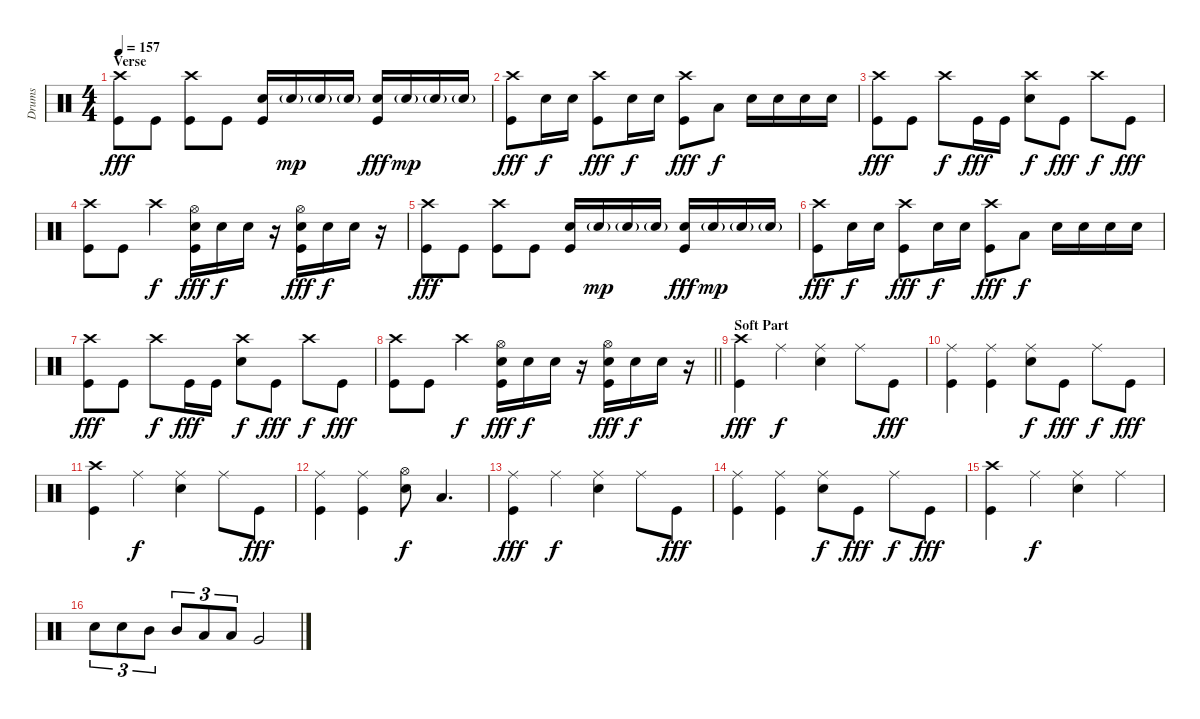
\track ("Drums" "Drums") {instrument percussion}
\staff {score}
\articulation defaults
\ts (4 4)
\section ("" "Verse")
\tempo 157
\clef neutral
\ks c
("Crash high (hit)" "Kick (hit)").8{dy fff} "Kick (hit)".8 ("Crash high (hit)" "Kick (hit)").8 "Kick (hit)".8 ("Snare (hit) 2" "Kick (hit)").16 "Snare (hit) 2"{g}.16{dy mp} "Snare (hit) 2"{g}.16 "Snare (hit) 2"{g}.16 ("Snare (hit) 2" "Kick (hit)").16{dy fff} "Snare (hit) 2"{g}.16{dy mp} "Snare (hit) 2"{g}.16 "Snare (hit) 2"{g}.16 |
("Crash high (hit)" "Kick (hit)").8{dy fff} "Snare (hit) 2".16{dy f} "Snare (hit) 2".16 ("Crash high (hit)" "Kick (hit)").8{dy fff} "Snare (hit) 2".16{dy f} "Snare (hit) 2".16 ("Crash high (hit)" "Kick (hit)").8{dy fff} "Low Tom (hit)".8{dy f} "Snare (hit) 2".16 "Snare (hit) 2".16 "Snare (hit) 2".16 "Snare (hit) 2".16 |
("Crash high (hit)" "Kick (hit)").8{dy fff} "Kick (hit)".8 "Crash high (hit)".8{dy f} "Kick (hit)".16{dy fff} "Kick (hit)".16 ("Crash high (hit)" "Snare (hit) 2").8{dy f} "Kick (hit)".8{dy fff} "Crash high (hit)".8{dy f} "Kick (hit)".8{dy fff} |
("Crash high (hit)" "Kick (hit)").8 "Kick (hit)".8 "Crash high (hit)".4{dy f} ("Hi-Hat (open)" "Snare (hit) 2" "Kick (hit)").16{dy fff} "Snare (hit) 2".16{dy f} "Snare (hit) 2".16 r.16 ("Hi-Hat (open)" "Snare (hit) 2" "Kick (hit)").16{dy fff} "Snare (hit) 2".16{dy f} "Snare (hit) 2".16 r.16 |
("Crash high (hit)" "Kick (hit)").8{dy fff} "Kick (hit)".8 ("Crash high (hit)" "Kick (hit)").8 "Kick (hit)".8 ("Snare (hit) 2" "Kick (hit)").16 "Snare (hit) 2"{g}.16{dy mp} "Snare (hit) 2"{g}.16 "Snare (hit) 2"{g}.16 ("Snare (hit) 2" "Kick (hit)").16{dy fff} "Snare (hit) 2"{g}.16{dy mp} "Snare (hit) 2"{g}.16 "Snare (hit) 2"{g}.16 |
("Crash high (hit)" "Kick (hit)").8{dy fff} "Snare (hit) 2".16{dy f} "Snare (hit) 2".16 ("Crash high (hit)" "Kick (hit)").8{dy fff} "Snare (hit) 2".16{dy f} "Snare (hit) 2".16 ("Crash high (hit)" "Kick (hit)").8{dy fff} "Low Tom (hit)".8{dy f} "Snare (hit) 2".16 "Snare (hit) 2".16 "Snare (hit) 2".16 "Snare (hit) 2".16 |
("Crash high (hit)" "Kick (hit)").8{dy fff} "Kick (hit)".8 "Crash high (hit)".8{dy f} "Kick (hit)".16{dy fff} "Kick (hit)".16 ("Crash high (hit)" "Snare (hit) 2").8{dy f} "Kick (hit)".8{dy fff} "Crash high (hit)".8{dy f} "Kick (hit)".8{dy fff} |
\barLineRight lightlight
("Crash high (hit)" "Kick (hit)").8 "Kick (hit)".8 "Crash high (hit)".4{dy f} ("Hi-Hat (open)" "Snare (hit) 2" "Kick (hit)").16{dy fff} "Snare (hit) 2".16{dy f} "Snare (hit) 2".16 r.16 ("Hi-Hat (open)" "Snare (hit) 2" "Kick (hit)").16{dy fff} "Snare (hit) 2".16{dy f} "Snare (hit) 2".16 r.16 |
\section ("" "Soft Part")
("Crash high (hit)" "Kick (hit)").4{dy fff} "Ride (middle)".4{dy f} ("Ride (middle)" "Snare (hit) 2").4 "Ride (middle)".8 "Kick (hit)".8{dy fff} |
("Ride (middle)" "Kick (hit)").4 ("Ride (middle)" "Kick (hit)").4 ("Ride (middle)" "Snare (hit) 2").8{dy f} "Kick (hit)".8{dy fff} "Ride (middle)".8{dy f} "Kick (hit)".8{dy fff} |
("Crash high (hit)" "Kick (hit)").4 "Ride (middle)".4{dy f} ("Ride (middle)" "Snare (hit) 2").4 "Ride (middle)".8 "Kick (hit)".8{dy fff} |
("Ride (middle)" "Kick (hit)").4 ("Ride (middle)" "Kick (hit)").4 ("Hi-Hat (open)" "Snare (hit) 2").8{dy f} "Low Floor Tom (hit)".4{d} |
("Ride (middle)" "Kick (hit)").4{dy fff} "Ride (middle)".4{dy f} ("Ride (middle)" "Snare (hit) 2").4 "Ride (middle)".8 "Kick (hit)".8{dy fff} |
("Ride (middle)" "Kick (hit)").4 ("Ride (middle)" "Kick (hit)").4 ("Ride (middle)" "Snare (hit) 2").8{dy f} "Kick (hit)".8{dy fff} "Ride (middle)".8{dy f} "Kick (hit)".8{dy fff} |
("Crash high (hit)" "Kick (hit)").4 "Ride (middle)".4{dy f} ("Ride (middle)" "Snare (hit) 2").4 "Ride (middle)".4 |
"Snare (hit) 2".8{tu (3 2)} "Snare (hit) 2".8{tu (3 2)} "Mid Tom (hit)".8{tu (3 2)} "Mid Tom (hit)".8{tu (3 2)} "Low Tom (hit)".8{tu (3 2)} "Low Tom (hit)".8{tu (3 2)} "Very Low Tom (hit)".2
